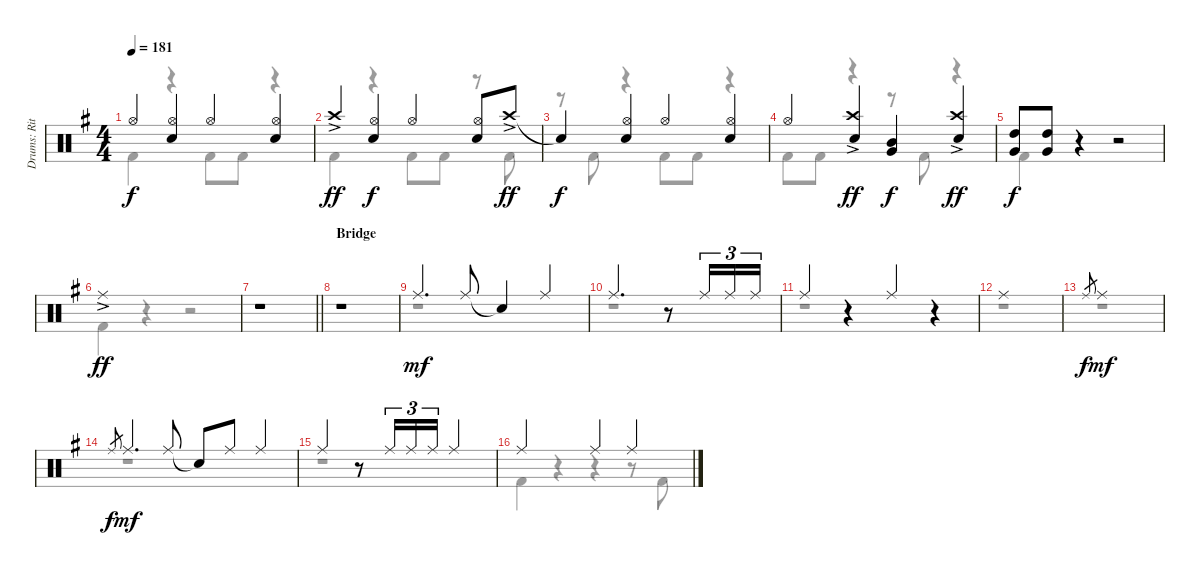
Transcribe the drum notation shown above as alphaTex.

\track ("Drums: Ritsu Tianaka" "Drums: Rit") {instrument percussion}
\staff {score}
\articulation defaults
\voice
\ts (4 4)
\tempo 181
\clef neutral
\ks g "Hi-Hat (open)".4{dy f}
("Hi-Hat (open)" "Snare (hit) 2").4 "Hi-Hat (open)".4 ("Hi-Hat (open)" "Snare (hit) 2").4 |
"Crash high (hit)"{ac}.4{dy ff} ("Hi-Hat (open)" "Snare (hit) 2").4{dy f} "Hi-Hat (open)".4 ("Hi-Hat (open)" "Snare (hit) 2").8 "Crash high (hit)"{ac}.8{dy ff} |
"Snare (hit)"{t}.4{dy f} ("Hi-Hat (open)" "Snare (hit) 2").4 "Hi-Hat (open)".4 ("Hi-Hat (open)" "Snare (hit) 2").4 |
"Hi-Hat (open)".4 ("Crash high (hit)"{ac} "Snare (hit) 2").4{dy ff} ("Mid Tom (hit)" "Very Low Tom (hit)").4{dy f} ("Crash high (hit)"{ac} "Snare (hit) 2").4{dy ff} |
("High Tom (hit)" "Very Low Tom (hit)").8{dy f} ("High Tom (hit)" "Very Low Tom (hit)").8 r.4 r.2 |
"Ride (middle)"{ac}.1{dy ff} |
\barLineRight lightlight
r.1 |
\section ("" "Bridge")
r.1 |
"Ride (middle)".4{d dy mf} "Ride (middle)".8 "Snare (hit)"{t}.4 "Ride (middle)".4 |
"Ride (middle)".2{d} r.8 "Ride (middle)".16{tu (3 2)} "Ride (middle)".16{tu (3 2)} "Ride (middle)".16{tu (3 2)} |
"Ride (middle)".4 r.4 "Ride (middle)".4 r.4 |
"Ride (middle)".1 |
"Ride (middle)".8{gr dy f} "Ride (middle)".1{dy mf} |
"Ride (middle)".8{gr dy f} "Ride (middle)".4{d dy mf} "Ride (middle)".8 "Snare (hit)"{t}.8 "Ride (middle)".8 "Ride (middle)".4 |
"Ride (middle)".4 r.8 "Ride (middle)".16{tu (3 2)} "Ride (middle)".16{tu (3 2)} "Ride (middle)".16{tu (3 2)} "Ride (middle)".2 |
"Ride (middle)".2 "Ride (middle)".4 "Ride (middle)".4
\voice
\clef neutral
\ottava regular
\simile none
\ks g "Kick (hit) 2".4{dy f}
r.4 "Kick (hit) 2".8 "Kick (hit) 2".8 r.4 |
"Kick (hit) 2".4 r.4 "Kick (hit) 2".8 "Kick (hit) 2".8 r.8 "Kick (hit) 2".8 |
r.8 "Kick (hit) 2".8 r.4 "Kick (hit) 2".8 "Kick (hit) 2".8 r.4 |
"Kick (hit) 2".8 "Kick (hit) 2".8 r.4 r.8 "Kick (hit) 2".8 r.4 |
"Kick (hit) 2".4 r.4 r.2 |
"Kick (hit) 2".4 r.4 r.2 |
\barLineRight lightlight
|
r.1 |
r.1 |
r.1 |
r.1 |
r.1 |
r.1 |
r.1 |
r.1 |
"Kick (hit) 2".4 r.4 r.4 r.8 "Kick (hit) 2".8
